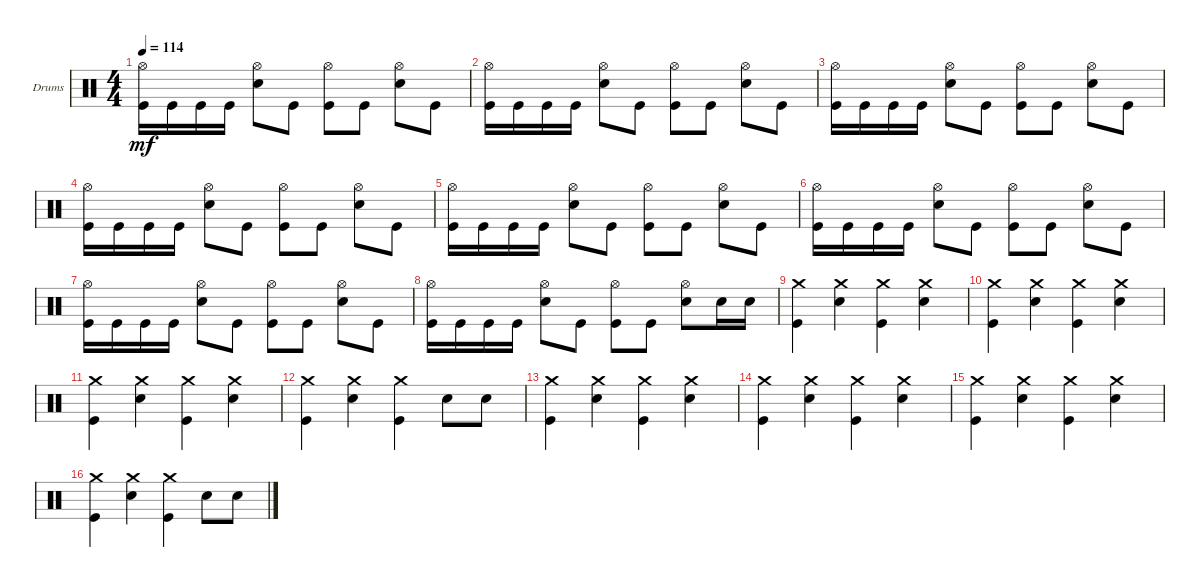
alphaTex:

\defaultSystemsLayout 4
\bracketExtendMode groupsimilarinstruments
\firstSystemTrackNameOrientation horizontal
\otherSystemsTrackNameOrientation horizontal
\track ("Drums Inferno" "Drums") {instrument percussion}
\staff {score}
\articulation defaults
\ts (4 4)
\tempo 114
\clef neutral
\scale
0.333333
\ks c
("Kick (hit)" "Hi-Hat (open)").16{dy mf} "Kick (hit)".16 "Kick (hit)".16 "Kick (hit)".16 ("Hi-Hat (open)" "Snare (hit) 2").8 "Kick (hit)".8 ("Hi-Hat (open)" "Kick (hit)").8 "Kick (hit)".8 ("Hi-Hat (open)" "Snare (hit) 2").8 "Kick (hit)".8 |
\scale
0.333333 ("Kick (hit)" "Hi-Hat (open)").16 "Kick (hit)".16 "Kick (hit)".16 "Kick (hit)".16 ("Hi-Hat (open)" "Snare (hit) 2").8 "Kick (hit)".8 ("Hi-Hat (open)" "Kick (hit)").8 "Kick (hit)".8 ("Hi-Hat (open)" "Snare (hit) 2").8 "Kick (hit)".8 |
\scale
0.333333 ("Kick (hit)" "Hi-Hat (open)").16 "Kick (hit)".16 "Kick (hit)".16 "Kick (hit)".16 ("Hi-Hat (open)" "Snare (hit) 2").8 "Kick (hit)".8 ("Hi-Hat (open)" "Kick (hit)").8 "Kick (hit)".8 ("Hi-Hat (open)" "Snare (hit) 2").8 "Kick (hit)".8 |
\scale
0.333333 ("Kick (hit)" "Hi-Hat (open)").16 "Kick (hit)".16 "Kick (hit)".16 "Kick (hit)".16 ("Hi-Hat (open)" "Snare (hit) 2").8 "Kick (hit)".8 ("Hi-Hat (open)" "Kick (hit)").8 "Kick (hit)".8 ("Hi-Hat (open)" "Snare (hit) 2").8 "Kick (hit)".8 |
\scale
0.333333 ("Kick (hit)" "Hi-Hat (open)").16 "Kick (hit)".16 "Kick (hit)".16 "Kick (hit)".16 ("Hi-Hat (open)" "Snare (hit) 2").8 "Kick (hit)".8 ("Hi-Hat (open)" "Kick (hit)").8 "Kick (hit)".8 ("Hi-Hat (open)" "Snare (hit) 2").8 "Kick (hit)".8 |
\scale
0.333333 ("Kick (hit)" "Hi-Hat (open)").16 "Kick (hit)".16 "Kick (hit)".16 "Kick (hit)".16 ("Hi-Hat (open)" "Snare (hit) 2").8 "Kick (hit)".8 ("Hi-Hat (open)" "Kick (hit)").8 "Kick (hit)".8 ("Hi-Hat (open)" "Snare (hit) 2").8 "Kick (hit)".8 |
\scale
0.333333 ("Kick (hit)" "Hi-Hat (open)").16 "Kick (hit)".16 "Kick (hit)".16 "Kick (hit)".16 ("Hi-Hat (open)" "Snare (hit) 2").8 "Kick (hit)".8 ("Hi-Hat (open)" "Kick (hit)").8 "Kick (hit)".8 ("Hi-Hat (open)" "Snare (hit) 2").8 "Kick (hit)".8 |
\scale
0.333333 ("Kick (hit)" "Hi-Hat (open)").16 "Kick (hit)".16 "Kick (hit)".16 "Kick (hit)".16 ("Hi-Hat (open)" "Snare (hit) 2").8 "Kick (hit)".8 ("Hi-Hat (open)" "Kick (hit)").8 "Kick (hit)".8 ("Hi-Hat (open)" "Snare (hit) 2").8 "Snare (hit) 2".16 "Snare (hit) 2".16 |
\scale
0.333333 ("Crash medium (hit)" "Kick (hit)").4 ("Crash medium (hit)" "Snare (hit) 2").4 ("Crash medium (hit)" "Kick (hit)").4 ("Crash medium (hit)" "Snare (hit) 2").4 |
\scale
0.333333 ("Crash medium (hit)" "Kick (hit)").4 ("Crash medium (hit)" "Snare (hit) 2").4 ("Crash medium (hit)" "Kick (hit)").4 ("Crash medium (hit)" "Snare (hit) 2").4 |
\scale
0.333333 ("Crash medium (hit)" "Kick (hit)").4 ("Crash medium (hit)" "Snare (hit) 2").4 ("Crash medium (hit)" "Kick (hit)").4 ("Crash medium (hit)" "Snare (hit) 2").4 |
\scale
0.333333 ("Crash medium (hit)" "Kick (hit)").4 ("Crash medium (hit)" "Snare (hit) 2").4 ("Crash medium (hit)" "Kick (hit)").4 "Snare (hit) 2".8 "Snare (hit) 2".8 |
\scale
0.333333 ("Crash medium (hit)" "Kick (hit)").4 ("Crash medium (hit)" "Snare (hit) 2").4 ("Crash medium (hit)" "Kick (hit)").4 ("Crash medium (hit)" "Snare (hit) 2").4 |
\scale
0.333333 ("Crash medium (hit)" "Kick (hit)").4 ("Crash medium (hit)" "Snare (hit) 2").4 ("Crash medium (hit)" "Kick (hit)").4 ("Crash medium (hit)" "Snare (hit) 2").4 |
\scale
0.333333 ("Crash medium (hit)" "Kick (hit)").4 ("Crash medium (hit)" "Snare (hit) 2").4 ("Crash medium (hit)" "Kick (hit)").4 ("Crash medium (hit)" "Snare (hit) 2").4 |
\scale
0.333333 ("Crash medium (hit)" "Kick (hit)").4 ("Crash medium (hit)" "Snare (hit) 2").4 ("Crash medium (hit)" "Kick (hit)").4 "Snare (hit) 2".8 "Snare (hit) 2".8
